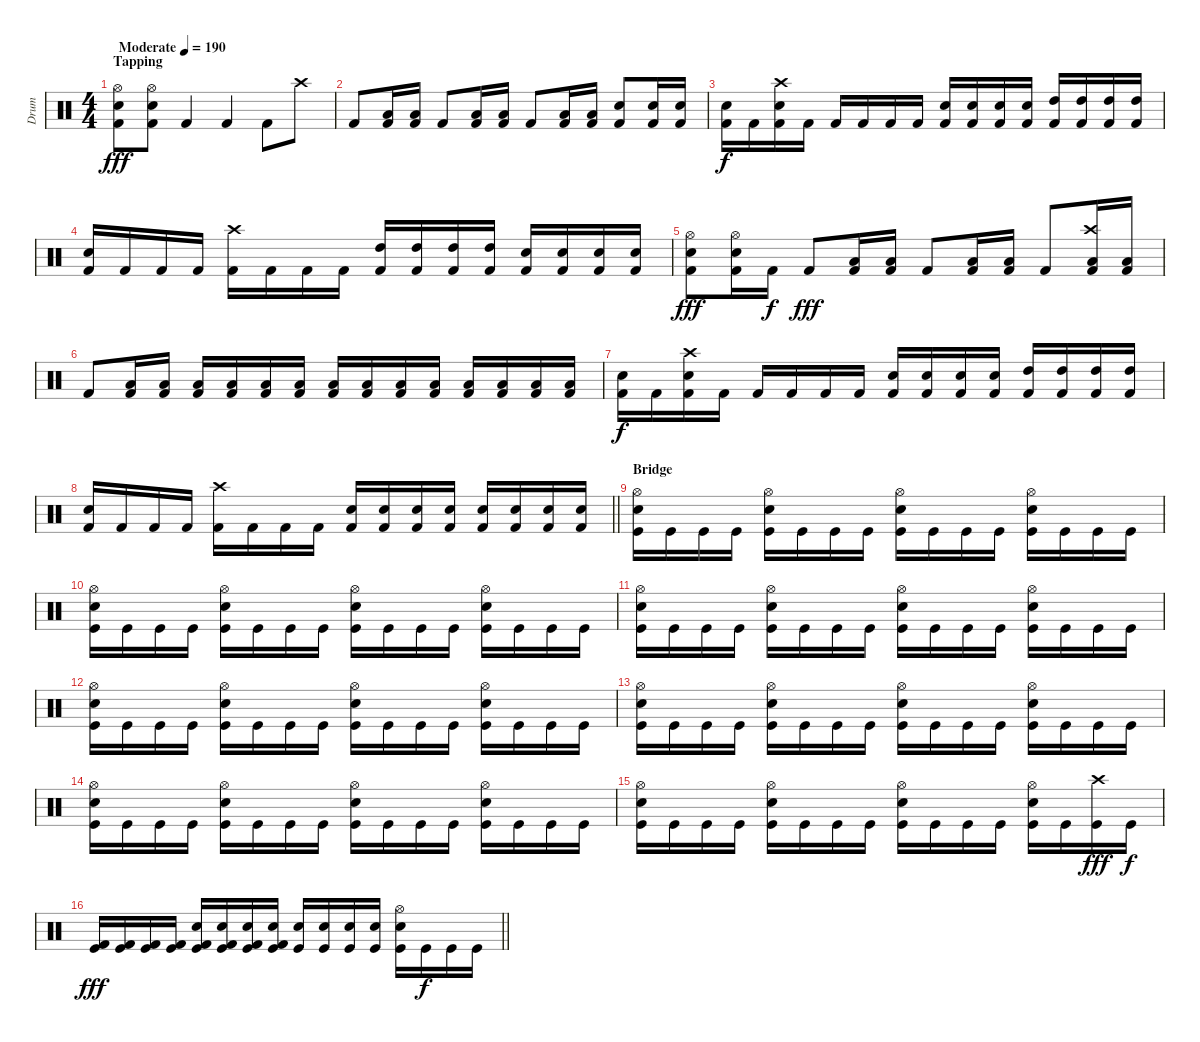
\track ("Drum" "Drum") {instrument percussion}
\staff {score}
\articulation defaults
\ts (4 4)
\section ("" "Tapping")
\tempo (190 "Moderate")
\clef neutral
\ks c
("Hi-Hat (open)" "Snare (hit) 2" "Kick (hit) 2").8{dy fff} ("Hi-Hat (open)" "Snare (hit) 2" "Kick (hit) 2").8 "Kick (hit) 2".4 "Kick (hit) 2".4 "Kick (hit) 2".8 "Crash high (hit)".8 |
"Kick (hit) 2".8 ("Low Floor Tom (hit)" "Kick (hit) 2").16 ("Low Floor Tom (hit)" "Kick (hit) 2").16 "Kick (hit) 2".8 ("Low Floor Tom (hit)" "Kick (hit) 2").16 ("Low Floor Tom (hit)" "Kick (hit) 2").16 "Kick (hit) 2".8 ("Low Floor Tom (hit)" "Kick (hit) 2").16 ("Low Floor Tom (hit)" "Kick (hit) 2").16 ("Snare (hit) 2" "Kick (hit) 2").8 ("Snare (hit) 2" "Kick (hit) 2").16 ("Snare (hit) 2" "Kick (hit) 2").16 |
("Snare (hit) 2" "Kick (hit) 2").16{dy f} "Kick (hit) 2".16 ("Crash high (hit)" "Snare (hit) 2" "Kick (hit) 2").16 "Kick (hit) 2".16 "Kick (hit) 2".16 "Kick (hit) 2".16 "Kick (hit) 2".16 "Kick (hit) 2".16 ("Snare (hit) 2" "Kick (hit) 2").16 ("Snare (hit) 2" "Kick (hit) 2").16 ("Snare (hit) 2" "Kick (hit) 2").16 ("Snare (hit) 2" "Kick (hit) 2").16 ("High Tom (hit)" "Kick (hit) 2").16 ("High Tom (hit)" "Kick (hit) 2").16 ("High Tom (hit)" "Kick (hit) 2").16 ("High Tom (hit)" "Kick (hit) 2").16 |
("Snare (hit) 2" "Kick (hit) 2").16 "Kick (hit) 2".16 "Kick (hit) 2".16 "Kick (hit) 2".16 ("Crash high (hit)" "Kick (hit) 2").16 "Kick (hit) 2".16 "Kick (hit) 2".16 "Kick (hit) 2".16 ("High Tom (hit)" "Kick (hit) 2").16 ("High Tom (hit)" "Kick (hit) 2").16 ("High Tom (hit)" "Kick (hit) 2").16 ("High Tom (hit)" "Kick (hit) 2").16 ("Snare (hit) 2" "Kick (hit) 2").16 ("Snare (hit) 2" "Kick (hit) 2").16 ("Snare (hit) 2" "Kick (hit) 2").16 ("Snare (hit) 2" "Kick (hit) 2").16 |
("Hi-Hat (open)" "Snare (hit) 2" "Kick (hit) 2").8{dy fff} ("Hi-Hat (open)" "Snare (hit) 2" "Kick (hit) 2").16 "Kick (hit) 2".16{dy f} "Kick (hit) 2".8{dy fff} ("Low Floor Tom (hit)" "Kick (hit) 2").16 ("Low Floor Tom (hit)" "Kick (hit) 2").16 "Kick (hit) 2".8 ("Low Floor Tom (hit)" "Kick (hit) 2").16 ("Low Floor Tom (hit)" "Kick (hit) 2").16 "Kick (hit) 2".8 ("Crash high (hit)" "Low Floor Tom (hit)" "Kick (hit) 2").16 ("Low Floor Tom (hit)" "Kick (hit) 2").16 |
"Kick (hit) 2".8 ("Low Floor Tom (hit)" "Kick (hit) 2").16 ("Low Floor Tom (hit)" "Kick (hit) 2").16 ("Low Floor Tom (hit)" "Kick (hit) 2").16 ("Low Floor Tom (hit)" "Kick (hit) 2").16 ("Low Floor Tom (hit)" "Kick (hit) 2").16 ("Low Floor Tom (hit)" "Kick (hit) 2").16 ("Low Floor Tom (hit)" "Kick (hit) 2").16 ("Low Floor Tom (hit)" "Kick (hit) 2").16 ("Low Floor Tom (hit)" "Kick (hit) 2").16 ("Low Floor Tom (hit)" "Kick (hit) 2").16 ("Low Floor Tom (hit)" "Kick (hit) 2").16 ("Low Floor Tom (hit)" "Kick (hit) 2").16 ("Low Floor Tom (hit)" "Kick (hit) 2").16 ("Low Floor Tom (hit)" "Kick (hit) 2").16 |
("Snare (hit) 2" "Kick (hit) 2").16{dy f} "Kick (hit) 2".16 ("Crash high (hit)" "Snare (hit) 2" "Kick (hit) 2").16 "Kick (hit) 2".16 "Kick (hit) 2".16 "Kick (hit) 2".16 "Kick (hit) 2".16 "Kick (hit) 2".16 ("Snare (hit) 2" "Kick (hit) 2").16 ("Snare (hit) 2" "Kick (hit) 2").16 ("Snare (hit) 2" "Kick (hit) 2").16 ("Snare (hit) 2" "Kick (hit) 2").16 ("High Tom (hit)" "Kick (hit) 2").16 ("High Tom (hit)" "Kick (hit) 2").16 ("High Tom (hit)" "Kick (hit) 2").16 ("High Tom (hit)" "Kick (hit) 2").16 |
\barLineRight lightlight
("Snare (hit) 2" "Kick (hit) 2").16 "Kick (hit) 2".16 "Kick (hit) 2".16 "Kick (hit) 2".16 ("Crash high (hit)" "Kick (hit) 2").16 "Kick (hit) 2".16 "Kick (hit) 2".16 "Kick (hit) 2".16 ("Snare (hit) 2" "Kick (hit) 2").16 ("Snare (hit) 2" "Kick (hit) 2").16 ("Snare (hit) 2" "Kick (hit) 2").16 ("Snare (hit) 2" "Kick (hit) 2").16 ("Snare (hit) 2" "Kick (hit) 2").16 ("Snare (hit) 2" "Kick (hit) 2").16 ("Snare (hit) 2" "Kick (hit) 2").16 ("Snare (hit) 2" "Kick (hit) 2").16 |
\section ("" "Bridge")
("Hi-Hat (open)" "Snare (hit) 2" "Kick (hit)").16 "Kick (hit)".16 "Kick (hit)".16 "Kick (hit)".16 ("Hi-Hat (open)" "Snare (hit) 2" "Kick (hit)").16 "Kick (hit)".16 "Kick (hit)".16 "Kick (hit)".16 ("Hi-Hat (open)" "Snare (hit) 2" "Kick (hit)").16 "Kick (hit)".16 "Kick (hit)".16 "Kick (hit)".16 ("Hi-Hat (open)" "Snare (hit) 2" "Kick (hit)").16 "Kick (hit)".16 "Kick (hit)".16 "Kick (hit)".16 |
("Hi-Hat (open)" "Snare (hit) 2" "Kick (hit)").16 "Kick (hit)".16 "Kick (hit)".16 "Kick (hit)".16 ("Hi-Hat (open)" "Snare (hit) 2" "Kick (hit)").16 "Kick (hit)".16 "Kick (hit)".16 "Kick (hit)".16 ("Hi-Hat (open)" "Snare (hit) 2" "Kick (hit)").16 "Kick (hit)".16 "Kick (hit)".16 "Kick (hit)".16 ("Hi-Hat (open)" "Snare (hit) 2" "Kick (hit)").16 "Kick (hit)".16 "Kick (hit)".16 "Kick (hit)".16 |
("Hi-Hat (open)" "Snare (hit) 2" "Kick (hit)").16 "Kick (hit)".16 "Kick (hit)".16 "Kick (hit)".16 ("Hi-Hat (open)" "Snare (hit) 2" "Kick (hit)").16 "Kick (hit)".16 "Kick (hit)".16 "Kick (hit)".16 ("Hi-Hat (open)" "Snare (hit) 2" "Kick (hit)").16 "Kick (hit)".16 "Kick (hit)".16 "Kick (hit)".16 ("Hi-Hat (open)" "Snare (hit) 2" "Kick (hit)").16 "Kick (hit)".16 "Kick (hit)".16 "Kick (hit)".16 |
("Hi-Hat (open)" "Snare (hit) 2" "Kick (hit)").16 "Kick (hit)".16 "Kick (hit)".16 "Kick (hit)".16 ("Hi-Hat (open)" "Snare (hit) 2" "Kick (hit)").16 "Kick (hit)".16 "Kick (hit)".16 "Kick (hit)".16 ("Hi-Hat (open)" "Snare (hit) 2" "Kick (hit)").16 "Kick (hit)".16 "Kick (hit)".16 "Kick (hit)".16 ("Hi-Hat (open)" "Snare (hit) 2" "Kick (hit)").16 "Kick (hit)".16 "Kick (hit)".16 "Kick (hit)".16 |
("Hi-Hat (open)" "Snare (hit) 2" "Kick (hit)").16 "Kick (hit)".16 "Kick (hit)".16 "Kick (hit)".16 ("Hi-Hat (open)" "Snare (hit) 2" "Kick (hit)").16 "Kick (hit)".16 "Kick (hit)".16 "Kick (hit)".16 ("Hi-Hat (open)" "Snare (hit) 2" "Kick (hit)").16 "Kick (hit)".16 "Kick (hit)".16 "Kick (hit)".16 ("Hi-Hat (open)" "Snare (hit) 2" "Kick (hit)").16 "Kick (hit)".16 "Kick (hit)".16 "Kick (hit)".16 |
("Hi-Hat (open)" "Snare (hit) 2" "Kick (hit)").16 "Kick (hit)".16 "Kick (hit)".16 "Kick (hit)".16 ("Hi-Hat (open)" "Snare (hit) 2" "Kick (hit)").16 "Kick (hit)".16 "Kick (hit)".16 "Kick (hit)".16 ("Hi-Hat (open)" "Snare (hit) 2" "Kick (hit)").16 "Kick (hit)".16 "Kick (hit)".16 "Kick (hit)".16 ("Hi-Hat (open)" "Snare (hit) 2" "Kick (hit)").16 "Kick (hit)".16 "Kick (hit)".16 "Kick (hit)".16 |
("Hi-Hat (open)" "Snare (hit) 2" "Kick (hit)").16 "Kick (hit)".16 "Kick (hit)".16 "Kick (hit)".16 ("Hi-Hat (open)" "Snare (hit) 2" "Kick (hit)").16 "Kick (hit)".16 "Kick (hit)".16 "Kick (hit)".16 ("Hi-Hat (open)" "Snare (hit) 2" "Kick (hit)").16 "Kick (hit)".16 "Kick (hit)".16 "Kick (hit)".16 ("Hi-Hat (open)" "Snare (hit) 2" "Kick (hit)").16 "Kick (hit)".16 ("Crash high (hit)" "Kick (hit)").16{dy fff} "Kick (hit)".16{dy f} |
\barLineRight lightlight
("Kick (hit) 2" "Kick (hit)").16{dy fff} ("Kick (hit) 2" "Kick (hit)").16 ("Kick (hit) 2" "Kick (hit)").16 ("Kick (hit) 2" "Kick (hit)").16 ("Snare (hit) 2" "Kick (hit) 2" "Kick (hit)").16 ("Snare (hit) 2" "Kick (hit) 2" "Kick (hit)").16 ("Electric Snare (hit)" "Kick (hit) 2" "Kick (hit)").16 ("Electric Snare (hit)" "Kick (hit) 2" "Kick (hit)").16 ("Electric Snare (hit)" "Kick (hit)").16 ("Electric Snare (hit)" "Kick (hit)").16 ("Electric Snare (hit)" "Kick (hit)").16 ("Electric Snare (hit)" "Kick (hit)").16 ("Hi-Hat (open)" "Snare (hit) 2" "Kick (hit)").16 "Kick (hit)".16{dy f} "Kick (hit)".16 "Kick (hit)".16
